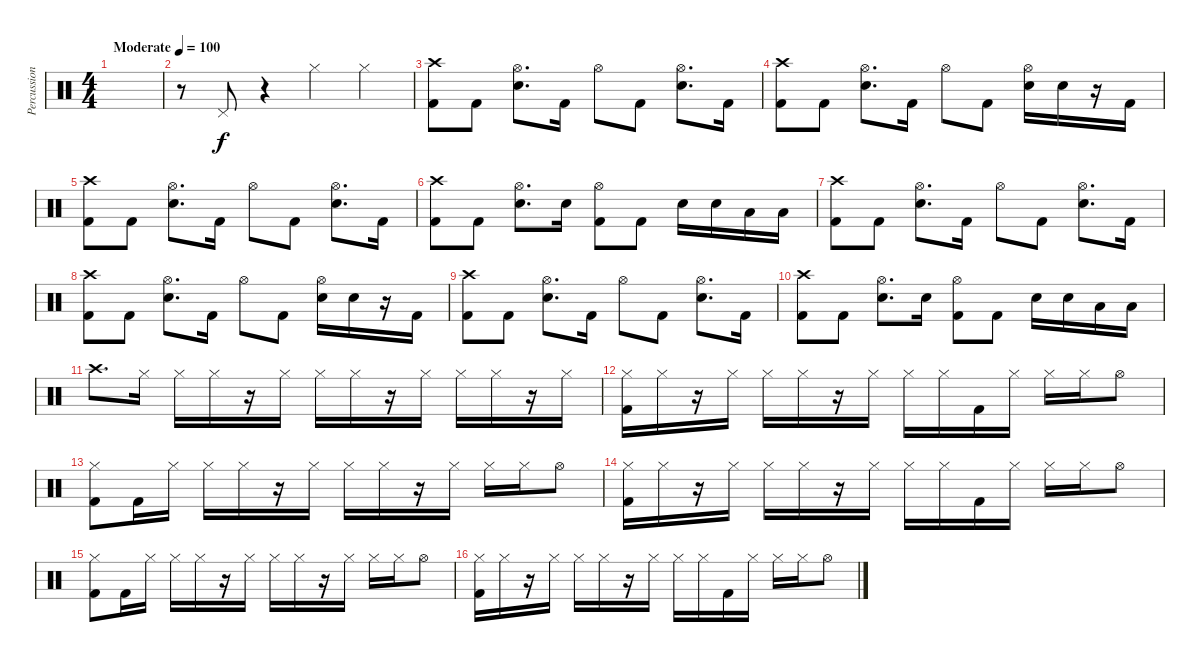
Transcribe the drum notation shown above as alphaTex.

\track ("Percussion" "Percussion") {instrument percussion}
\staff {score}
\articulation defaults
\ts (4 4)
\tempo (100 "Moderate")
\clef neutral
\ks c
|
r.8 "Pedal Hi-Hat (hit)".8 r.4 "Hi-Hat (closed)".4{dy f} "Hi-Hat (closed)".4 |
("Kick (hit) 2" "Crash high (hit)").8 "Kick (hit) 2".8 ("Electric Snare (hit)" "Hi-Hat (open)").8{d} "Kick (hit) 2".16 "Hi-Hat (open)".8 "Kick (hit) 2".8 ("Hi-Hat (open)" "Electric Snare (hit)").8{d} "Kick (hit) 2".16 |
("Crash high (hit)" "Kick (hit) 2").8 "Kick (hit) 2".8 ("Hi-Hat (open)" "Electric Snare (hit)").8{d} "Kick (hit) 2".16 "Hi-Hat (open)".8 "Kick (hit) 2".8 ("Hi-Hat (open)" "Electric Snare (hit)").16 "Electric Snare (hit)".16 r.16 "Kick (hit) 2".16 |
("Kick (hit) 2" "Crash high (hit)").8 "Kick (hit) 2".8 ("Electric Snare (hit)" "Hi-Hat (open)").8{d} "Kick (hit) 2".16 "Hi-Hat (open)".8 "Kick (hit) 2".8 ("Hi-Hat (open)" "Electric Snare (hit)").8{d} "Kick (hit) 2".16 |
("Kick (hit) 2" "Crash high (hit)").8 "Kick (hit) 2".8 ("Hi-Hat (open)" "Electric Snare (hit)").8{d} "Electric Snare (hit)".16 ("Kick (hit) 2" "Hi-Hat (open)").8 "Kick (hit) 2".8 "Electric Snare (hit)".16 "Electric Snare (hit)".16 "Low Tom (hit)".16 "Low Tom (hit)".16 |
("Kick (hit) 2" "Crash high (hit)").8 "Kick (hit) 2".8 ("Electric Snare (hit)" "Hi-Hat (open)").8{d} "Kick (hit) 2".16 "Hi-Hat (open)".8 "Kick (hit) 2".8 ("Hi-Hat (open)" "Electric Snare (hit)").8{d} "Kick (hit) 2".16 |
("Crash high (hit)" "Kick (hit) 2").8 "Kick (hit) 2".8 ("Hi-Hat (open)" "Electric Snare (hit)").8{d} "Kick (hit) 2".16 "Hi-Hat (open)".8 "Kick (hit) 2".8 ("Hi-Hat (open)" "Electric Snare (hit)").16 "Electric Snare (hit)".16 r.16 "Kick (hit) 2".16 |
("Kick (hit) 2" "Crash high (hit)").8 "Kick (hit) 2".8 ("Electric Snare (hit)" "Hi-Hat (open)").8{d} "Kick (hit) 2".16 "Hi-Hat (open)".8 "Kick (hit) 2".8 ("Hi-Hat (open)" "Electric Snare (hit)").8{d} "Kick (hit) 2".16 |
("Kick (hit) 2" "Crash high (hit)").8 "Kick (hit) 2".8 ("Hi-Hat (open)" "Electric Snare (hit)").8{d} "Electric Snare (hit)".16 ("Kick (hit) 2" "Hi-Hat (open)").8 "Kick (hit) 2".8 "Electric Snare (hit)".16 "Electric Snare (hit)".16 "Low Tom (hit)".16 "Low Tom (hit)".16 |
"Crash high (hit)".8{d volume 5} "Hi-Hat (closed)".16 "Hi-Hat (closed)".16 "Hi-Hat (closed)".16 r.16 "Hi-Hat (closed)".16 "Hi-Hat (closed)".16 "Hi-Hat (closed)".16 r.16 "Hi-Hat (closed)".16 "Hi-Hat (closed)".16 "Hi-Hat (closed)".16 r.16 "Hi-Hat (closed)".16 |
("Kick (hit) 2" "Hi-Hat (closed)").16 "Hi-Hat (closed)".16 r.16 "Hi-Hat (closed)".16 "Hi-Hat (closed)".16 "Hi-Hat (closed)".16 r.16 "Hi-Hat (closed)".16 "Hi-Hat (closed)".16 "Hi-Hat (closed)".16 "Kick (hit) 2".16 "Hi-Hat (closed)".16 "Hi-Hat (closed)".16 "Hi-Hat (closed)".16 "Hi-Hat (open)".8 |
("Kick (hit) 2" "Hi-Hat (closed)").8 "Kick (hit) 2".16 "Hi-Hat (closed)".16 "Hi-Hat (closed)".16 "Hi-Hat (closed)".16 r.16 "Hi-Hat (closed)".16 "Hi-Hat (closed)".16 "Hi-Hat (closed)".16 r.16 "Hi-Hat (closed)".16 "Hi-Hat (closed)".16 "Hi-Hat (closed)".16 "Hi-Hat (open)".8 |
("Kick (hit) 2" "Hi-Hat (closed)").16 "Hi-Hat (closed)".16 r.16 "Hi-Hat (closed)".16 "Hi-Hat (closed)".16 "Hi-Hat (closed)".16 r.16 "Hi-Hat (closed)".16 "Hi-Hat (closed)".16 "Hi-Hat (closed)".16 "Kick (hit) 2".16 "Hi-Hat (closed)".16 "Hi-Hat (closed)".16 "Hi-Hat (closed)".16 "Hi-Hat (open)".8 |
("Kick (hit) 2" "Hi-Hat (closed)").8 "Kick (hit) 2".16 "Hi-Hat (closed)".16 "Hi-Hat (closed)".16 "Hi-Hat (closed)".16 r.16 "Hi-Hat (closed)".16 "Hi-Hat (closed)".16 "Hi-Hat (closed)".16 r.16 "Hi-Hat (closed)".16 "Hi-Hat (closed)".16 "Hi-Hat (closed)".16 "Hi-Hat (open)".8 |
("Kick (hit) 2" "Hi-Hat (closed)").16 "Hi-Hat (closed)".16 r.16 "Hi-Hat (closed)".16 "Hi-Hat (closed)".16 "Hi-Hat (closed)".16 r.16 "Hi-Hat (closed)".16 "Hi-Hat (closed)".16 "Hi-Hat (closed)".16 "Kick (hit) 2".16 "Hi-Hat (closed)".16 "Hi-Hat (closed)".16 "Hi-Hat (closed)".16 "Hi-Hat (open)".8
